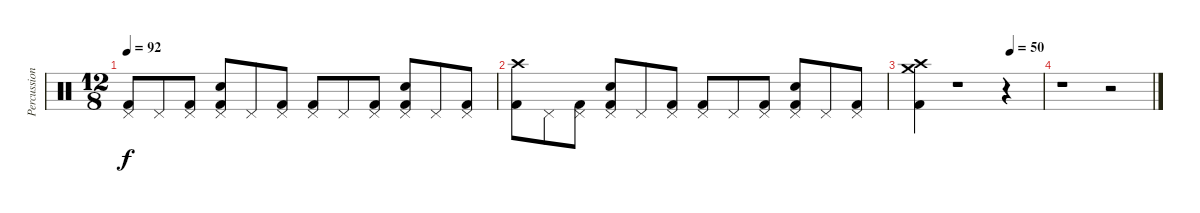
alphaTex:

\track ("Percussions" "Percussion") {instrument percussion}
\staff {score}
\articulation defaults
\ts (12 8)
\tempo 92
\clef neutral
\ks c
("Pedal Hi-Hat (hit)" "Kick (hit) 2").8{dy f} "Pedal Hi-Hat (hit)".8 ("Pedal Hi-Hat (hit)" "Kick (hit) 2").8 ("Pedal Hi-Hat (hit)" "Electric Snare (hit)" "Kick (hit) 2").8 "Pedal Hi-Hat (hit)".8 ("Pedal Hi-Hat (hit)" "Kick (hit) 2").8 ("Pedal Hi-Hat (hit)" "Kick (hit) 2").8 "Pedal Hi-Hat (hit)".8 ("Pedal Hi-Hat (hit)" "Kick (hit) 2").8 ("Pedal Hi-Hat (hit)" "Electric Snare (hit)" "Kick (hit) 2").8 "Pedal Hi-Hat (hit)".8 ("Pedal Hi-Hat (hit)" "Kick (hit) 2").8 |
("Crash high (hit)" "Kick (hit) 2").8 "Pedal Hi-Hat (hit)".8 ("Pedal Hi-Hat (hit)" "Kick (hit) 2").8 ("Pedal Hi-Hat (hit)" "Electric Snare (hit)" "Kick (hit) 2").8 "Pedal Hi-Hat (hit)".8 ("Pedal Hi-Hat (hit)" "Kick (hit) 2").8 ("Pedal Hi-Hat (hit)" "Kick (hit) 2").8 "Pedal Hi-Hat (hit)".8 ("Pedal Hi-Hat (hit)" "Kick (hit) 2").8 ("Pedal Hi-Hat (hit)" "Electric Snare (hit)" "Kick (hit) 2").8 "Pedal Hi-Hat (hit)".8 ("Pedal Hi-Hat (hit)" "Kick (hit) 2").8 |
\tempo (50 0.75)
("Crash medium (hit)" "Crash high (hit)" "Kick (hit) 2").4 r.1 r.4 |
r.1 r.2
